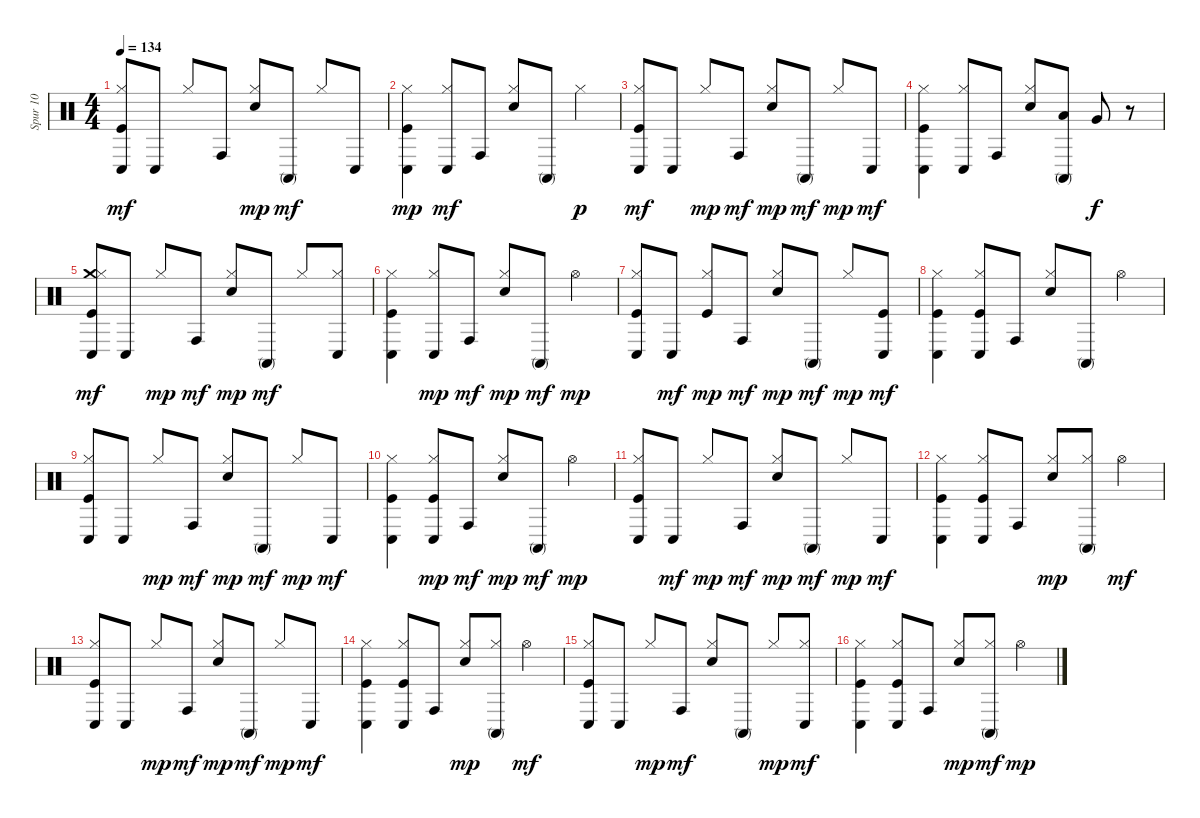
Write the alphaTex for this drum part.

\track ("Spur 10" "Spur 10") {instrument percussion}
\staff {score}
\articulation defaults
\ts (4 4)
\tempo 134
\clef neutral
\ks c
("Kick (hit)" "Conga low (hit)" "Hi-Hat (closed)").8{dy mf} "Conga low (hit)".8 "Hi-Hat (closed)".8 "Conga high (hit)".8 ("Electric Snare (hit)" "Hi-Hat (closed)").8{dy mp} "Conga high (mute)".8{dy mf} "Hi-Hat (closed)".8 "Conga low (hit)".8 |
("Kick (hit)" "Conga low (hit)" "Hi-Hat (closed)").4{dy mp} ("Conga low (hit)" "Hi-Hat (closed)").8{dy mf} "Conga high (hit)".8 ("Electric Snare (hit)" "Hi-Hat (closed)").8 "Conga high (mute)".8 "Hi-Hat (closed)".4{dy p} |
("Kick (hit)" "Hi-Hat (closed)" "Conga low (hit)").8{dy mf} "Conga low (hit)".8 "Hi-Hat (closed)".8{dy mp} "Conga high (hit)".8{dy mf} ("Electric Snare (hit)" "Hi-Hat (closed)").8{dy mp} "Conga high (mute)".8{dy mf} "Hi-Hat (closed)".8{dy mp} "Conga low (hit)".8{dy mf} |
("Kick (hit)" "Hi-Hat (closed)" "Conga low (hit)").4 ("Hi-Hat (closed)" "Conga low (hit)").8 "Conga high (hit)".8 ("Electric Snare (hit)" "Hi-Hat (closed)").8 ("Low Tom (hit)" "Conga high (mute)").8 "Very Low Tom (hit)".8{dy f} r.8 |
("Conga low (hit)" "Crash medium (hit)" "Kick (hit)" "Hi-Hat (closed)").8{dy mf} "Conga low (hit)".8 "Hi-Hat (closed)".8{dy mp} "Conga high (hit)".8{dy mf} ("Electric Snare (hit)" "Hi-Hat (closed)").8{dy mp} "Conga high (mute)".8{dy mf} "Hi-Hat (closed)".8 ("Conga low (hit)" "Hi-Hat (closed)").8 |
("Conga low (hit)" "Kick (hit)" "Hi-Hat (closed)").4 ("Conga low (hit)" "Hi-Hat (closed)").8{dy mp} "Conga high (hit)".8{dy mf} ("Electric Snare (hit)" "Hi-Hat (closed)").8{dy mp} "Conga high (mute)".8{dy mf} "Hi-Hat (open)".4{dy mp} |
("Kick (hit)" "Conga low (hit)" "Hi-Hat (closed)").8 "Conga low (hit)".8{dy mf} ("Hi-Hat (closed)" "Kick (hit)").8{dy mp} "Conga high (hit)".8{dy mf} ("Electric Snare (hit)" "Hi-Hat (closed)").8{dy mp} "Conga high (mute)".8{dy mf} "Hi-Hat (closed)".8{dy mp} ("Kick (hit)" "Conga low (hit)").8{dy mf} |
("Kick (hit)" "Conga low (hit)" "Hi-Hat (closed)").4 ("Kick (hit)" "Conga low (hit)" "Hi-Hat (closed)").8 "Conga high (hit)".8 ("Electric Snare (hit)" "Hi-Hat (closed)").8 "Conga high (mute)".8 "Hi-Hat (open)".4 |
("Conga low (hit)" "Hi-Hat (closed)" "Kick (hit)").8 "Conga low (hit)".8 "Hi-Hat (closed)".8{dy mp} "Conga high (hit)".8{dy mf} ("Hi-Hat (closed)" "Electric Snare (hit)").8{dy mp} "Conga high (mute)".8{dy mf} "Hi-Hat (closed)".8{dy mp} "Conga low (hit)".8{dy mf} |
("Conga low (hit)" "Hi-Hat (closed)" "Kick (hit)").4 ("Conga low (hit)" "Hi-Hat (closed)" "Kick (hit)").8{dy mp} "Conga high (hit)".8{dy mf} ("Hi-Hat (closed)" "Electric Snare (hit)").8{dy mp} "Conga high (mute)".8{dy mf} "Hi-Hat (open)".4{dy mp} |
("Kick (hit)" "Conga low (hit)" "Hi-Hat (closed)").8 "Conga low (hit)".8{dy mf} "Hi-Hat (closed)".8{dy mp} "Conga high (hit)".8{dy mf} ("Electric Snare (hit)" "Hi-Hat (closed)").8{dy mp} "Conga high (mute)".8{dy mf} "Hi-Hat (closed)".8{dy mp} "Conga low (hit)".8{dy mf} |
("Kick (hit)" "Conga low (hit)" "Hi-Hat (closed)").4 ("Kick (hit)" "Conga low (hit)" "Hi-Hat (closed)").8 "Conga high (hit)".8 ("Electric Snare (hit)" "Hi-Hat (closed)").8{dy mp} ("Conga high (mute)" "Hi-Hat (closed)").8 "Hi-Hat (open)".4{dy mf} |
("Hi-Hat (closed)" "Kick (hit)" "Conga low (hit)").8 "Conga low (hit)".8 "Hi-Hat (closed)".8{dy mp} "Conga high (hit)".8{dy mf} ("Hi-Hat (closed)" "Electric Snare (hit)").8{dy mp} "Conga high (mute)".8{dy mf} "Hi-Hat (closed)".8{dy mp} "Conga low (hit)".8{dy mf} |
("Kick (hit)" "Conga low (hit)" "Hi-Hat (closed)").4 ("Kick (hit)" "Conga low (hit)" "Hi-Hat (closed)").8 "Conga high (hit)".8 ("Electric Snare (hit)" "Hi-Hat (closed)").8{dy mp} ("Conga high (mute)" "Hi-Hat (closed)").8 "Hi-Hat (open)".4{dy mf} |
("Kick (hit)" "Hi-Hat (closed)" "Conga low (hit)").8 "Conga low (hit)".8 "Hi-Hat (closed)".8{dy mp} "Conga high (hit)".8{dy mf} ("Electric Snare (hit)" "Hi-Hat (closed)").8 "Conga high (mute)".8 "Hi-Hat (closed)".8{dy mp} ("Hi-Hat (closed)" "Conga low (hit)").8{dy mf} |
("Kick (hit)" "Hi-Hat (closed)" "Conga low (hit)").4 ("Kick (hit)" "Hi-Hat (closed)" "Conga low (hit)").8 "Conga high (hit)".8 ("Electric Snare (hit)" "Hi-Hat (closed)").8{dy mp} ("Hi-Hat (closed)" "Conga high (mute)").8{dy mf} "Hi-Hat (open)".4{dy mp}
